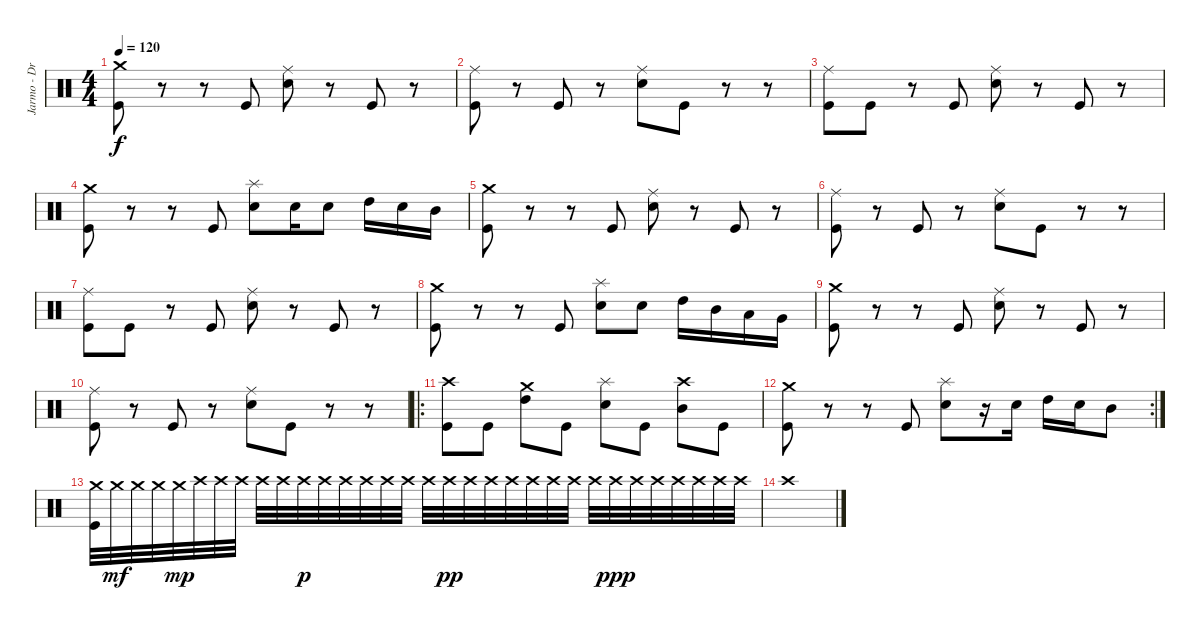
\track ("Jarmo - Drums" "Jarmo - Dr") {instrument percussion}
\staff {score}
\articulation defaults
\ts (4 4)
\tempo 120
\clef neutral
\ks c
("Kick (hit)" "Crash medium (hit)").8{dy f} r.8 r.8 "Kick (hit)".8 ("Electric Snare (hit)" "Ride (middle)").8 r.8 "Kick (hit)".8 r.8 |
("Kick (hit)" "Ride (middle)").8 r.8 "Kick (hit)".8 r.8 ("Electric Snare (hit)" "Ride (middle)").8 "Kick (hit)".8 r.8 r.8 |
("Kick (hit)" "Ride (middle)").8 "Kick (hit)".8 r.8 "Kick (hit)".8 ("Electric Snare (hit)" "Ride (middle)").8 r.8 "Kick (hit)".8 r.8 |
("Kick (hit)" "Crash medium (hit)").8 r.8 r.8 "Kick (hit)".8 ("Electric Snare (hit)" "Splash (hit)").8 "Electric Snare (hit)".16 "Electric Snare (hit)".8 "High Tom (hit)".16 "Electric Snare (hit)".16 "Mid Tom (hit)".16 |
("Kick (hit)" "Crash medium (hit)").8 r.8 r.8 "Kick (hit)".8 ("Electric Snare (hit)" "Ride (middle)").8 r.8 "Kick (hit)".8 r.8 |
("Kick (hit)" "Ride (middle)").8 r.8 "Kick (hit)".8 r.8 ("Electric Snare (hit)" "Ride (middle)").8 "Kick (hit)".8 r.8 r.8 |
("Kick (hit)" "Ride (middle)").8 "Kick (hit)".8 r.8 "Kick (hit)".8 ("Electric Snare (hit)" "Ride (middle)").8 r.8 "Kick (hit)".8 r.8 |
("Kick (hit)" "Crash medium (hit)").8 r.8 r.8 "Kick (hit)".8 ("Electric Snare (hit)" "Splash (hit)").8 "Electric Snare (hit)".8 "High Tom (hit)".16 "Mid Tom (hit)".16 "Low Tom (hit)".16 "Very Low Tom (hit)".16 |
("Kick (hit)" "Crash medium (hit)").8 r.8 r.8 "Kick (hit)".8 ("Electric Snare (hit)" "Ride (middle)").8 r.8 "Kick (hit)".8 r.8 |
("Kick (hit)" "Ride (middle)").8 r.8 "Kick (hit)".8 r.8 ("Electric Snare (hit)" "Ride (middle)").8 "Kick (hit)".8 r.8 r.8 |
\ro
("Kick (hit)" "Crash high (hit)").8 "Kick (hit)".8 ("High Tom (hit)" "Crash medium (hit)").8 "Kick (hit)".8 ("Electric Snare (hit)" "Splash (hit)").8 "Kick (hit)".8 ("Mid Tom (hit)" "Crash high (hit)").8 "Kick (hit)".8 |
\rc 2
("Kick (hit)" "Crash medium (hit)").8 r.8 r.8 "Kick (hit)".8 ("Electric Snare (hit)" "Splash (hit)").8 r.16 "Electric Snare (hit)".16 "High Tom (hit)".16 "Electric Snare (hit)".16 "Mid Tom (hit)".8 |
("Kick (hit)" "Crash medium (hit)").32 "Crash medium (hit)".32{dy mf} "Crash medium (hit)".32 "Crash medium (hit)".32 "Crash medium (hit)".32{dy mp} "Crash high (hit)".32 "Crash high (hit)".32 "Crash high (hit)".32 "Crash high (hit)".32 "Crash high (hit)".32 "Crash high (hit)".32{dy p} "Crash high (hit)".32 "Crash high (hit)".32 "Crash high (hit)".32 "Crash high (hit)".32 "Crash high (hit)".32 "Crash high (hit)".32 "Crash high (hit)".32{dy pp} "Crash high (hit)".32 "Crash high (hit)".32 "Crash high (hit)".32 "Crash high (hit)".32 "Crash high (hit)".32 "Crash high (hit)".32 "Crash high (hit)".32 "Crash high (hit)".32{dy ppp} "Crash high (hit)".32 "Crash high (hit)".32 "Crash high (hit)".32 "Crash high (hit)".32 "Crash high (hit)".32 "Crash high (hit)".32 |
"Crash high (hit)".1
